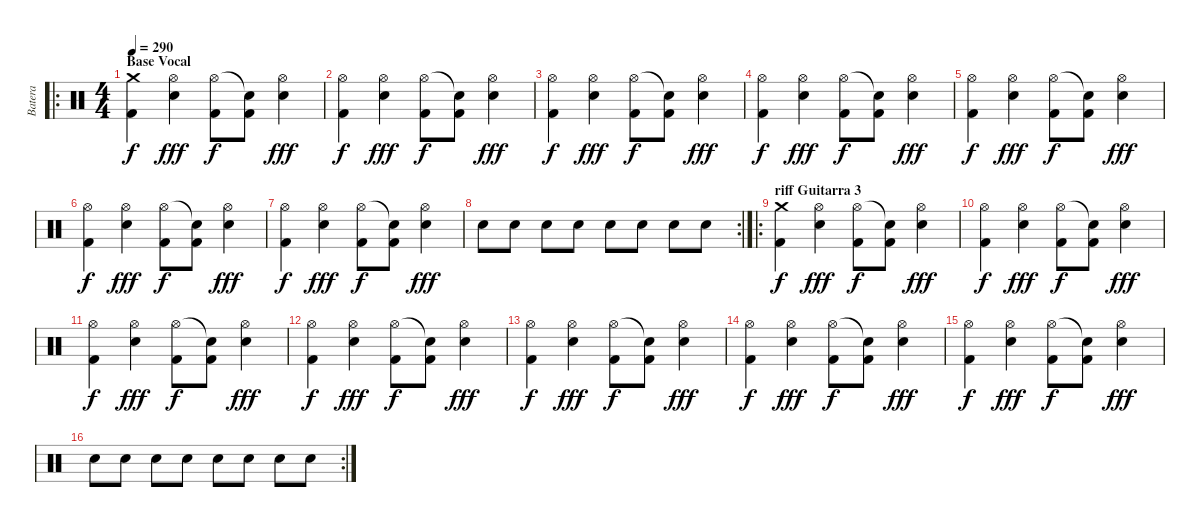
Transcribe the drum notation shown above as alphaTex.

\track ("Batera" "Batera") {instrument percussion}
\staff {score}
\articulation defaults
\ro
\ts (4 4)
\section ("" "Base Vocal")
\tempo 290
\clef neutral
\ks c
("Crash medium (hit)" "Kick (hit) 2").4{dy f} ("Hi-Hat (open)" "Electric Snare (hit)").4{dy fff} ("Hi-Hat (open)" "Kick (hit) 2").8{dy f} ("Snare (hit)"{t} "Kick (hit) 2").8 ("Hi-Hat (open)" "Electric Snare (hit)").4{dy fff} |
("Hi-Hat (open)" "Kick (hit) 2").4{dy f} ("Hi-Hat (open)" "Electric Snare (hit)").4{dy fff} ("Hi-Hat (open)" "Kick (hit) 2").8{dy f} ("Snare (hit)"{t} "Kick (hit) 2").8 ("Hi-Hat (open)" "Electric Snare (hit)").4{dy fff} |
("Hi-Hat (open)" "Kick (hit) 2").4{dy f} ("Hi-Hat (open)" "Electric Snare (hit)").4{dy fff} ("Hi-Hat (open)" "Kick (hit) 2").8{dy f} ("Snare (hit)"{t} "Kick (hit) 2").8 ("Hi-Hat (open)" "Electric Snare (hit)").4{dy fff} |
("Hi-Hat (open)" "Kick (hit) 2").4{dy f} ("Hi-Hat (open)" "Electric Snare (hit)").4{dy fff} ("Hi-Hat (open)" "Kick (hit) 2").8{dy f} ("Snare (hit)"{t} "Kick (hit) 2").8 ("Hi-Hat (open)" "Electric Snare (hit)").4{dy fff} |
("Hi-Hat (open)" "Kick (hit) 2").4{dy f} ("Hi-Hat (open)" "Electric Snare (hit)").4{dy fff} ("Hi-Hat (open)" "Kick (hit) 2").8{dy f} ("Snare (hit)"{t} "Kick (hit) 2").8 ("Hi-Hat (open)" "Electric Snare (hit)").4{dy fff} |
("Hi-Hat (open)" "Kick (hit) 2").4{dy f} ("Hi-Hat (open)" "Electric Snare (hit)").4{dy fff} ("Hi-Hat (open)" "Kick (hit) 2").8{dy f} ("Snare (hit)"{t} "Kick (hit) 2").8 ("Hi-Hat (open)" "Electric Snare (hit)").4{dy fff} |
("Hi-Hat (open)" "Kick (hit) 2").4{dy f} ("Hi-Hat (open)" "Electric Snare (hit)").4{dy fff} ("Hi-Hat (open)" "Kick (hit) 2").8{dy f} ("Snare (hit)"{t} "Kick (hit) 2").8 ("Hi-Hat (open)" "Electric Snare (hit)").4{dy fff} |
\rc 2 "Electric Snare (hit)".8 "Electric Snare (hit)".8 "Electric Snare (hit)".8 "Electric Snare (hit)".8 "Electric Snare (hit)".8 "Electric Snare (hit)".8 "Electric Snare (hit)".8 "Electric Snare (hit)".8
|
\ro
\section ("" "riff Guitarra 3")
("Crash medium (hit)" "Kick (hit) 2").4{dy f} ("Hi-Hat (open)" "Electric Snare (hit)").4{dy fff} ("Hi-Hat (open)" "Kick (hit) 2").8{dy f} ("Snare (hit)"{t} "Kick (hit) 2").8 ("Hi-Hat (open)" "Electric Snare (hit)").4{dy fff} |
("Hi-Hat (open)" "Kick (hit) 2").4{dy f} ("Hi-Hat (open)" "Electric Snare (hit)").4{dy fff} ("Hi-Hat (open)" "Kick (hit) 2").8{dy f} ("Snare (hit)"{t} "Kick (hit) 2").8 ("Hi-Hat (open)" "Electric Snare (hit)").4{dy fff} |
("Hi-Hat (open)" "Kick (hit) 2").4{dy f} ("Hi-Hat (open)" "Electric Snare (hit)").4{dy fff} ("Hi-Hat (open)" "Kick (hit) 2").8{dy f} ("Snare (hit)"{t} "Kick (hit) 2").8 ("Hi-Hat (open)" "Electric Snare (hit)").4{dy fff} |
("Hi-Hat (open)" "Kick (hit) 2").4{dy f} ("Hi-Hat (open)" "Electric Snare (hit)").4{dy fff} ("Hi-Hat (open)" "Kick (hit) 2").8{dy f} ("Snare (hit)"{t} "Kick (hit) 2").8 ("Hi-Hat (open)" "Electric Snare (hit)").4{dy fff} |
("Hi-Hat (open)" "Kick (hit) 2").4{dy f} ("Hi-Hat (open)" "Electric Snare (hit)").4{dy fff} ("Hi-Hat (open)" "Kick (hit) 2").8{dy f} ("Snare (hit)"{t} "Kick (hit) 2").8 ("Hi-Hat (open)" "Electric Snare (hit)").4{dy fff} |
("Hi-Hat (open)" "Kick (hit) 2").4{dy f} ("Hi-Hat (open)" "Electric Snare (hit)").4{dy fff} ("Hi-Hat (open)" "Kick (hit) 2").8{dy f} ("Snare (hit)"{t} "Kick (hit) 2").8 ("Hi-Hat (open)" "Electric Snare (hit)").4{dy fff} |
("Hi-Hat (open)" "Kick (hit) 2").4{dy f} ("Hi-Hat (open)" "Electric Snare (hit)").4{dy fff} ("Hi-Hat (open)" "Kick (hit) 2").8{dy f} ("Snare (hit)"{t} "Kick (hit) 2").8 ("Hi-Hat (open)" "Electric Snare (hit)").4{dy fff} |
\rc 2 "Electric Snare (hit)".8 "Electric Snare (hit)".8 "Electric Snare (hit)".8 "Electric Snare (hit)".8 "Electric Snare (hit)".8 "Electric Snare (hit)".8 "Electric Snare (hit)".8 "Electric Snare (hit)".8
